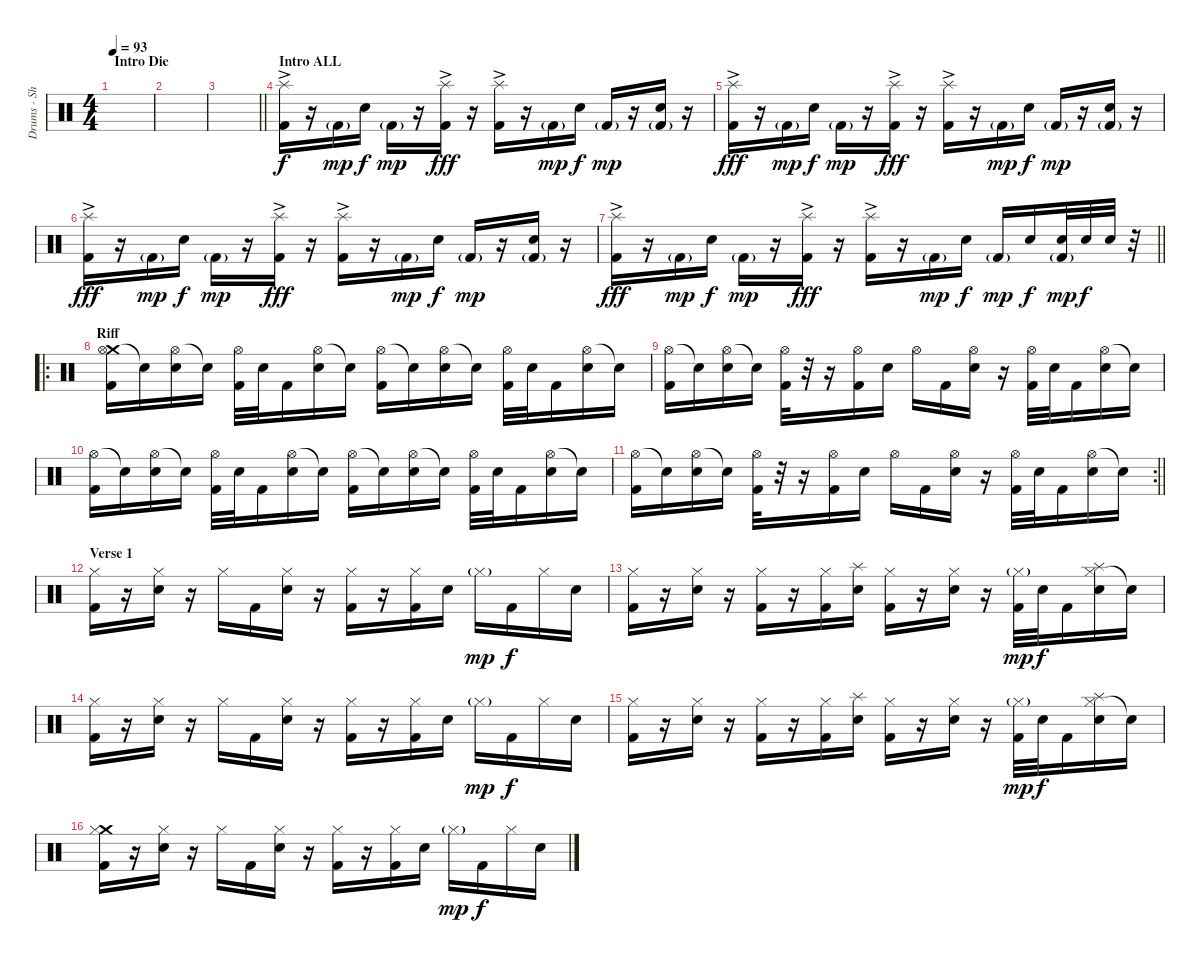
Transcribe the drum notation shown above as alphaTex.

\track ("Drums - Shinya" "Drums - Sh") {instrument percussion}
\staff {score}
\articulation defaults
\ts (4 4)
\section ("" "Intro Die")
\tempo 93
\clef neutral
\ks c
|
|
\barLineRight lightlight
|
\section ("" "Intro ALL")
("Splash (hit)" "Kick (hit) 2"{ac}).16 r.16 "Kick (hit) 2"{g}.16{dy mp} "Electric Snare (hit)".16{dy f} "Kick (hit) 2"{g}.16{dy mp} r.16 ("Splash (hit)" "Kick (hit) 2"{ac}).16{dy fff} r.16 ("Splash (hit)" "Kick (hit) 2"{ac}).16 r.16 "Kick (hit) 2"{g}.16{dy mp} "Electric Snare (hit)".16{dy f} "Kick (hit) 2"{g}.16{dy mp} r.16 ("Electric Snare (hit)" "Kick (hit) 2"{g}).16 r.16 |
("Splash (hit)" "Kick (hit) 2"{ac}).16{dy fff} r.16 "Kick (hit) 2"{g}.16{dy mp} "Electric Snare (hit)".16{dy f} "Kick (hit) 2"{g}.16{dy mp} r.16 ("Splash (hit)" "Kick (hit) 2"{ac}).16{dy fff} r.16 ("Splash (hit)" "Kick (hit) 2"{ac}).16 r.16 "Kick (hit) 2"{g}.16{dy mp} "Electric Snare (hit)".16{dy f} "Kick (hit) 2"{g}.16{dy mp} r.16 ("Electric Snare (hit)" "Kick (hit) 2"{g}).16 r.16 |
("Splash (hit)" "Kick (hit) 2"{ac}).16{dy fff} r.16 "Kick (hit) 2"{g}.16{dy mp} "Electric Snare (hit)".16{dy f} "Kick (hit) 2"{g}.16{dy mp} r.16 ("Splash (hit)" "Kick (hit) 2"{ac}).16{dy fff} r.16 ("Splash (hit)" "Kick (hit) 2"{ac}).16 r.16 "Kick (hit) 2"{g}.16{dy mp} "Electric Snare (hit)".16{dy f} "Kick (hit) 2"{g}.16{dy mp} r.16 ("Electric Snare (hit)" "Kick (hit) 2"{g}).16 r.16 |
\barLineRight lightlight
("Splash (hit)" "Kick (hit) 2"{ac}).16{dy fff} r.16 "Kick (hit) 2"{g}.16{dy mp} "Electric Snare (hit)".16{dy f} "Kick (hit) 2"{g}.16{dy mp} r.16 ("Splash (hit)" "Kick (hit) 2"{ac}).16{dy fff} r.16 ("Splash (hit)" "Kick (hit) 2"{ac}).16 r.16 "Kick (hit) 2"{g}.16{dy mp} "Electric Snare (hit)".16{dy f} "Kick (hit) 2"{g}.16{dy mp} "Electric Snare (hit)".16{dy f} ("Electric Snare (hit)" "Kick (hit) 2"{g}).32{dy mp} "Electric Snare (hit)".32{dy f} "Electric Snare (hit)".32 r.32 |
\ro
\section ("" "Riff")
("Crash medium (hit)" "Hi-Hat (open)" "Kick (hit) 2").16 "Snare (hit)"{t}.16 ("Hi-Hat (open)" "Electric Snare (hit)").16 "Snare (hit)"{t}.16 ("Hi-Hat (open)" "Kick (hit) 2").32 "Electric Snare (hit)".32 "Kick (hit) 2".16 ("Hi-Hat (open)" "Electric Snare (hit)").16 "Snare (hit)"{t}.16 ("Hi-Hat (open)" "Kick (hit) 2").16 "Snare (hit)"{t}.16 ("Hi-Hat (open)" "Electric Snare (hit)").16 "Electric Snare (hit)"{t}.16 ("Hi-Hat (open)" "Kick (hit) 2").32 "Electric Snare (hit)".32 "Kick (hit) 2".16 ("Hi-Hat (open)" "Electric Snare (hit)").16 "Snare (hit)"{t}.16 |
("Hi-Hat (open)" "Kick (hit) 2").16 "Snare (hit)"{t}.16 ("Hi-Hat (open)" "Electric Snare (hit)").16 "Snare (hit)"{t}.16 ("Hi-Hat (open)" "Kick (hit) 2").32 r.32 r.16 ("Hi-Hat (open)" "Kick (hit) 2").16 "Electric Snare (hit)".16 "Hi-Hat (open)".16 "Kick (hit) 2".16 ("Hi-Hat (open)" "Electric Snare (hit)").16 r.16 ("Hi-Hat (open)" "Kick (hit) 2").32 "Electric Snare (hit)".32 "Kick (hit) 2".16 ("Hi-Hat (open)" "Electric Snare (hit)").16 "Snare (hit)"{t}.16 |
("Hi-Hat (open)" "Kick (hit) 2").16 "Snare (hit)"{t}.16 ("Hi-Hat (open)" "Electric Snare (hit)").16 "Snare (hit)"{t}.16 ("Hi-Hat (open)" "Kick (hit) 2").32 "Electric Snare (hit)".32 "Kick (hit) 2".16 ("Hi-Hat (open)" "Electric Snare (hit)").16 "Snare (hit)"{t}.16 ("Hi-Hat (open)" "Kick (hit) 2").16 "Snare (hit)"{t}.16 ("Hi-Hat (open)" "Electric Snare (hit)").16 "Electric Snare (hit)"{t}.16 ("Hi-Hat (open)" "Kick (hit) 2").32 "Electric Snare (hit)".32 "Kick (hit) 2".16 ("Hi-Hat (open)" "Electric Snare (hit)").16 "Snare (hit)"{t}.16 |
\rc 2
\barLineRight lightlight
("Hi-Hat (open)" "Kick (hit) 2").16 "Snare (hit)"{t}.16 ("Hi-Hat (open)" "Electric Snare (hit)").16 "Snare (hit)"{t}.16 ("Hi-Hat (open)" "Kick (hit) 2").32 r.32 r.16 ("Hi-Hat (open)" "Kick (hit) 2").16 "Electric Snare (hit)".16 "Hi-Hat (open)".16 "Kick (hit) 2".16 ("Hi-Hat (open)" "Electric Snare (hit)").16 r.16 ("Hi-Hat (open)" "Kick (hit) 2").32 "Electric Snare (hit)".32 "Kick (hit) 2".16 ("Hi-Hat (open)" "Electric Snare (hit)").16 "Snare (hit)"{t}.16 |
\section ("" "Verse 1")
("Hi-Hat (closed)" "Kick (hit) 2").16 r.16 ("Hi-Hat (closed)" "Electric Snare (hit)").16 r.16 "Hi-Hat (closed)".16 "Kick (hit) 2".16 ("Hi-Hat (closed)" "Electric Snare (hit)").16 r.16 ("Hi-Hat (closed)" "Kick (hit) 2").16 r.16 ("Hi-Hat (closed)" "Kick (hit) 2").16 "Electric Snare (hit)".16 "Hi-Hat (closed)"{g}.16{dy mp} "Kick (hit) 2".16{dy f} "Hi-Hat (closed)".16 "Electric Snare (hit)".16 |
("Hi-Hat (closed)" "Kick (hit) 2").16 r.16 ("Hi-Hat (closed)" "Electric Snare (hit)").16 r.16 ("Hi-Hat (closed)" "Kick (hit) 2").16 r.16 ("Hi-Hat (closed)" "Kick (hit) 2").16 ("Splash (hit)" "Electric Snare (hit)").16 ("Hi-Hat (closed)" "Kick (hit) 2").16 r.16 ("Hi-Hat (closed)" "Electric Snare (hit)").16 r.16 ("Hi-Hat (closed)"{g} "Kick (hit) 2").32{dy mp} "Electric Snare (hit)".32{dy f} "Kick (hit) 2".16 ("Hi-Hat (closed)" "Splash (hit)" "Electric Snare (hit)").16 "Snare (hit)"{t}.16 |
("Hi-Hat (closed)" "Kick (hit) 2").16 r.16 ("Hi-Hat (closed)" "Electric Snare (hit)").16 r.16 "Hi-Hat (closed)".16 "Kick (hit) 2".16 ("Hi-Hat (closed)" "Electric Snare (hit)").16 r.16 ("Hi-Hat (closed)" "Kick (hit) 2").16 r.16 ("Hi-Hat (closed)" "Kick (hit) 2").16 "Electric Snare (hit)".16 "Hi-Hat (closed)"{g}.16{dy mp} "Kick (hit) 2".16{dy f} "Hi-Hat (closed)".16 "Electric Snare (hit)".16 |
("Hi-Hat (closed)" "Kick (hit) 2").16 r.16 ("Hi-Hat (closed)" "Electric Snare (hit)").16 r.16 ("Hi-Hat (closed)" "Kick (hit) 2").16 r.16 ("Hi-Hat (closed)" "Kick (hit) 2").16 ("Splash (hit)" "Electric Snare (hit)").16 ("Hi-Hat (closed)" "Kick (hit) 2").16 r.16 ("Hi-Hat (closed)" "Electric Snare (hit)").16 r.16 ("Hi-Hat (closed)"{g} "Kick (hit) 2").32{dy mp} "Electric Snare (hit)".32{dy f} "Kick (hit) 2".16 ("Hi-Hat (closed)" "Splash (hit)" "Electric Snare (hit)").16 "Snare (hit)"{t}.16 |
("Crash medium (hit)" "Hi-Hat (closed)" "Kick (hit) 2").16 r.16 ("Hi-Hat (closed)" "Electric Snare (hit)").16 r.16 "Hi-Hat (closed)".16 "Kick (hit) 2".16 ("Hi-Hat (closed)" "Electric Snare (hit)").16 r.16 ("Hi-Hat (closed)" "Kick (hit) 2").16 r.16 ("Hi-Hat (closed)" "Kick (hit) 2").16 "Electric Snare (hit)".16 "Hi-Hat (closed)"{g}.16{dy mp} "Kick (hit) 2".16{dy f} "Hi-Hat (closed)".16 "Electric Snare (hit)".16
